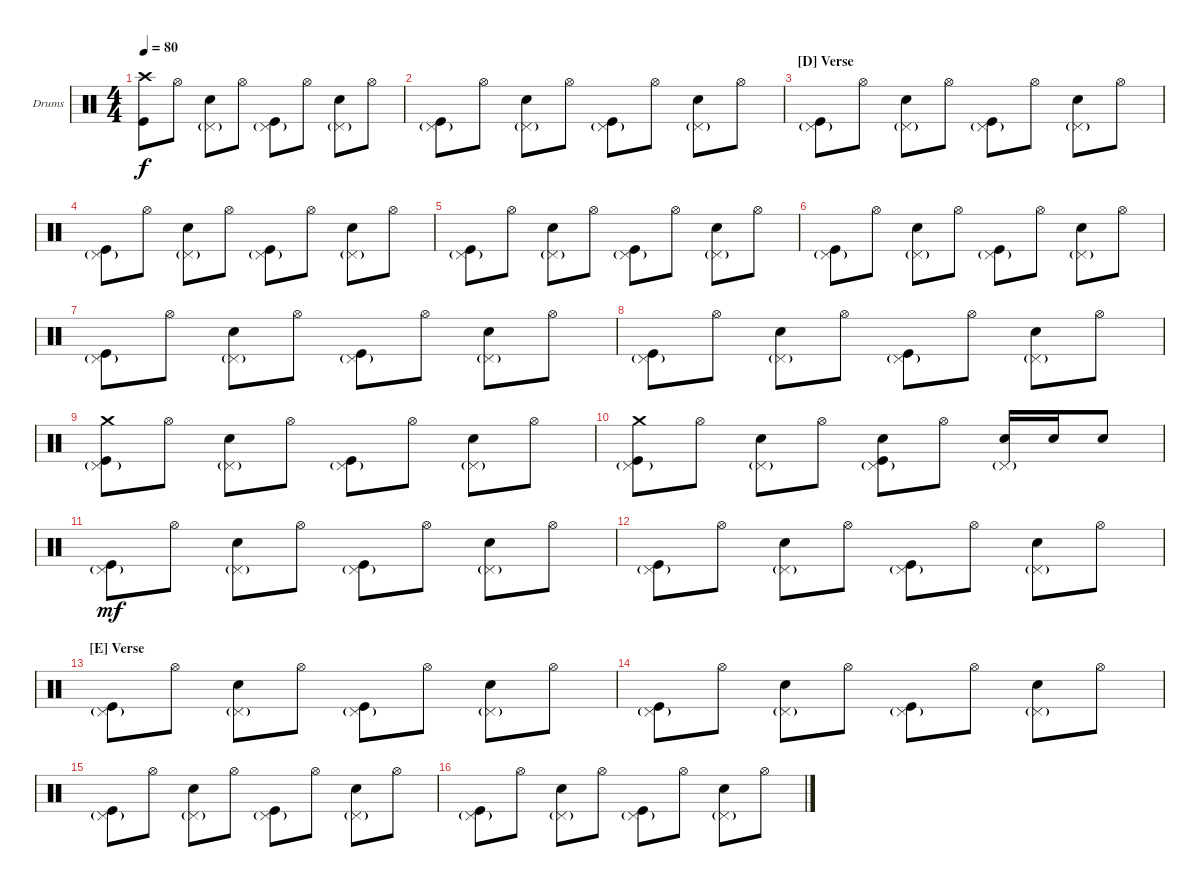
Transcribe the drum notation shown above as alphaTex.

\defaultSystemsLayout 4
\bracketExtendMode groupsimilarinstruments
\firstSystemTrackNameOrientation horizontal
\otherSystemsTrackNameOrientation horizontal
\track ("Drumkit" "Drums") {instrument percussion}
\staff {score}
\articulation defaults
\ts (4 4)
\tempo 80
\clef neutral
\scale
1.02648
\ks c
("Crash high (hit)" "Kick (hit)").8{dy f} "Hi-Hat (open)".8 ("Pedal Hi-Hat (hit)"{g} "Snare (hit) 2").8 "Hi-Hat (open)".8 ("Pedal Hi-Hat (hit)"{g} "Kick (hit)").8 "Hi-Hat (open)".8 ("Pedal Hi-Hat (hit)"{g} "Snare (hit) 2").8 "Hi-Hat (open)".8 |
\scale
0.973518 ("Pedal Hi-Hat (hit)"{g} "Kick (hit)").8 "Hi-Hat (open)".8 ("Pedal Hi-Hat (hit)"{g} "Snare (hit) 2").8 "Hi-Hat (open)".8 ("Pedal Hi-Hat (hit)"{g} "Kick (hit)").8 "Hi-Hat (open)".8 ("Pedal Hi-Hat (hit)"{g} "Snare (hit) 2").8 "Hi-Hat (open)".8 |
\section ("D" "Verse")
\scale
1.02648 ("Pedal Hi-Hat (hit)"{g} "Kick (hit)").8 "Hi-Hat (open)".8 ("Pedal Hi-Hat (hit)"{g} "Snare (hit) 2").8 "Hi-Hat (open)".8 ("Pedal Hi-Hat (hit)"{g} "Kick (hit)").8 "Hi-Hat (open)".8 ("Pedal Hi-Hat (hit)"{g} "Snare (hit) 2").8 "Hi-Hat (open)".8 |
\scale
0.973518 ("Pedal Hi-Hat (hit)"{g} "Kick (hit)").8 "Hi-Hat (open)".8 ("Pedal Hi-Hat (hit)"{g} "Snare (hit) 2").8 "Hi-Hat (open)".8 ("Pedal Hi-Hat (hit)"{g} "Kick (hit)").8 "Hi-Hat (open)".8 ("Pedal Hi-Hat (hit)"{g} "Snare (hit) 2").8 "Hi-Hat (open)".8 |
\scale
1.02648 ("Pedal Hi-Hat (hit)"{g} "Kick (hit)").8 "Hi-Hat (open)".8 ("Pedal Hi-Hat (hit)"{g} "Snare (hit) 2").8 "Hi-Hat (open)".8 ("Pedal Hi-Hat (hit)"{g} "Kick (hit)").8 "Hi-Hat (open)".8 ("Pedal Hi-Hat (hit)"{g} "Snare (hit) 2").8 "Hi-Hat (open)".8 |
\scale
0.973518 ("Pedal Hi-Hat (hit)"{g} "Kick (hit)").8 "Hi-Hat (open)".8 ("Pedal Hi-Hat (hit)"{g} "Snare (hit) 2").8 "Hi-Hat (open)".8 ("Pedal Hi-Hat (hit)"{g} "Kick (hit)").8 "Hi-Hat (open)".8 ("Pedal Hi-Hat (hit)"{g} "Snare (hit) 2").8 "Hi-Hat (open)".8 |
\scale
1.02648 ("Pedal Hi-Hat (hit)"{g} "Kick (hit)").8 "Hi-Hat (open)".8 ("Pedal Hi-Hat (hit)"{g} "Snare (hit) 2").8 "Hi-Hat (open)".8 ("Pedal Hi-Hat (hit)"{g} "Kick (hit)").8 "Hi-Hat (open)".8 ("Pedal Hi-Hat (hit)"{g} "Snare (hit) 2").8 "Hi-Hat (open)".8 |
\scale
0.973518 ("Pedal Hi-Hat (hit)"{g} "Kick (hit)").8 "Hi-Hat (open)".8 ("Pedal Hi-Hat (hit)"{g} "Snare (hit) 2").8 "Hi-Hat (open)".8 ("Pedal Hi-Hat (hit)"{g} "Kick (hit)").8 "Hi-Hat (open)".8 ("Pedal Hi-Hat (hit)"{g} "Snare (hit) 2").8 "Hi-Hat (open)".8 |
\scale
1.02648 ("Pedal Hi-Hat (hit)"{g} "Crash medium (hit)" "Kick (hit)").8 "Hi-Hat (open)".8 ("Pedal Hi-Hat (hit)"{g} "Snare (hit) 2").8 "Hi-Hat (open)".8 ("Pedal Hi-Hat (hit)"{g} "Kick (hit)").8 "Hi-Hat (open)".8 ("Pedal Hi-Hat (hit)"{g} "Snare (hit) 2").8 "Hi-Hat (open)".8 |
\scale
0.973518 ("Pedal Hi-Hat (hit)"{g} "Crash medium (hit)" "Kick (hit)").8 "Hi-Hat (open)".8 ("Pedal Hi-Hat (hit)"{g} "Snare (hit) 2").8 "Hi-Hat (open)".8 ("Pedal Hi-Hat (hit)"{g} "Snare (hit) 2" "Kick (hit)").8 "Hi-Hat (open)".8 ("Pedal Hi-Hat (hit)"{g} "Snare (hit) 2").16 "Snare (hit) 2".16 "Snare (hit) 2".8 |
\scale
1.02648 ("Pedal Hi-Hat (hit)"{g} "Kick (hit)").8{dy mf} "Hi-Hat (open)".8 ("Pedal Hi-Hat (hit)"{g} "Snare (hit) 2").8 "Hi-Hat (open)".8 ("Pedal Hi-Hat (hit)"{g} "Kick (hit)").8 "Hi-Hat (open)".8 ("Pedal Hi-Hat (hit)"{g} "Snare (hit) 2").8 "Hi-Hat (open)".8 |
\scale
0.973518 ("Pedal Hi-Hat (hit)"{g} "Kick (hit)").8 "Hi-Hat (open)".8 ("Pedal Hi-Hat (hit)"{g} "Snare (hit) 2").8 "Hi-Hat (open)".8 ("Pedal Hi-Hat (hit)"{g} "Kick (hit)").8 "Hi-Hat (open)".8 ("Pedal Hi-Hat (hit)"{g} "Snare (hit) 2").8 "Hi-Hat (open)".8 |
\section ("E" "Verse")
\scale
1.02648 ("Pedal Hi-Hat (hit)"{g} "Kick (hit)").8 "Hi-Hat (open)".8 ("Pedal Hi-Hat (hit)"{g} "Snare (hit) 2").8 "Hi-Hat (open)".8 ("Pedal Hi-Hat (hit)"{g} "Kick (hit)").8 "Hi-Hat (open)".8 ("Pedal Hi-Hat (hit)"{g} "Snare (hit) 2").8 "Hi-Hat (open)".8 |
\scale
0.973518 ("Pedal Hi-Hat (hit)"{g} "Kick (hit)").8 "Hi-Hat (open)".8 ("Pedal Hi-Hat (hit)"{g} "Snare (hit) 2").8 "Hi-Hat (open)".8 ("Pedal Hi-Hat (hit)"{g} "Kick (hit)").8 "Hi-Hat (open)".8 ("Pedal Hi-Hat (hit)"{g} "Snare (hit) 2").8 "Hi-Hat (open)".8 |
\scale
1.02648 ("Pedal Hi-Hat (hit)"{g} "Kick (hit)").8 "Hi-Hat (open)".8 ("Pedal Hi-Hat (hit)"{g} "Snare (hit) 2").8 "Hi-Hat (open)".8 ("Pedal Hi-Hat (hit)"{g} "Kick (hit)").8 "Hi-Hat (open)".8 ("Pedal Hi-Hat (hit)"{g} "Snare (hit) 2").8 "Hi-Hat (open)".8 |
\scale
0.973518 ("Pedal Hi-Hat (hit)"{g} "Kick (hit)").8 "Hi-Hat (open)".8 ("Pedal Hi-Hat (hit)"{g} "Snare (hit) 2").8 "Hi-Hat (open)".8 ("Pedal Hi-Hat (hit)"{g} "Kick (hit)").8 "Hi-Hat (open)".8 ("Pedal Hi-Hat (hit)"{g} "Snare (hit) 2").8 "Hi-Hat (open)".8
